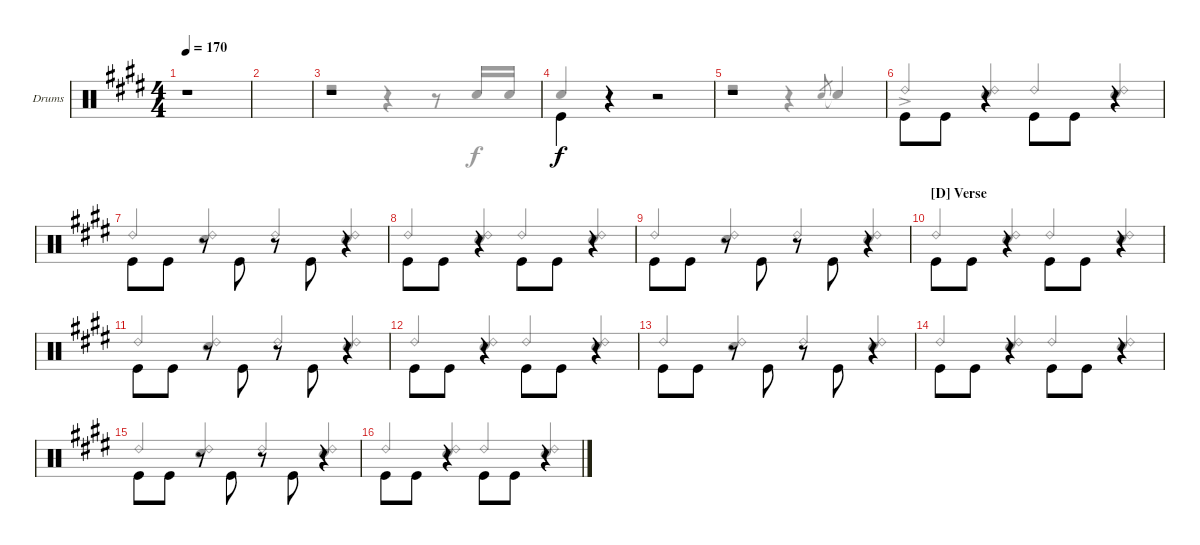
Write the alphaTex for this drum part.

\bracketExtendMode groupsimilarinstruments
\firstSystemTrackNameOrientation horizontal
\otherSystemsTrackNameOrientation horizontal
\track ("Drums" "Drums") {instrument percussion}
\staff {score}
\articulation defaults
\voice
\ts (4 4)
\tempo 170
\clef neutral
\scale
1.06557
\ks e
r.1{dy f} |
\scale
0.934426 |
\scale
1.06557 r.1 |
\scale
0.934426 "Kick (hit)".4{beam invert} r.4 r.2 |
\scale
1.06557 r.1 |
\scale
0.934426 "Kick (hit)".8{beam invert} "Kick (hit)".8 r.4 "Kick (hit)".8{beam invert} "Kick (hit)".8 r.4 |
\scale
1.06557 "Kick (hit)".8{beam invert} "Kick (hit)".8 r.8{beam invert} "Kick (hit)".8{beam invert} r.8{beam invert} "Kick (hit)".8{beam invert} r.4{beam invert} |
\scale
0.934426 "Kick (hit)".8{beam invert} "Kick (hit)".8 r.4 "Kick (hit)".8{beam invert} "Kick (hit)".8 r.4 |
\scale
1.06557 "Kick (hit)".8{beam invert} "Kick (hit)".8 r.8{beam invert} "Kick (hit)".8{beam invert} r.8{beam invert} "Kick (hit)".8{beam invert} r.4{beam invert} |
\section ("D" "Verse")
\scale
0.934426 "Kick (hit)".8{beam invert} "Kick (hit)".8 r.4 "Kick (hit)".8{beam invert} "Kick (hit)".8 r.4 |
\scale
1.06557 "Kick (hit)".8{beam invert} "Kick (hit)".8 r.8{beam invert} "Kick (hit)".8{beam invert} r.8{beam invert} "Kick (hit)".8{beam invert} r.4{beam invert} |
\scale
0.934426 "Kick (hit)".8{beam invert} "Kick (hit)".8 r.4 "Kick (hit)".8{beam invert} "Kick (hit)".8 r.4 |
\scale
1.06557 "Kick (hit)".8{beam invert} "Kick (hit)".8 r.8{beam invert} "Kick (hit)".8{beam invert} r.8{beam invert} "Kick (hit)".8{beam invert} r.4{beam invert} |
\scale
0.934426 "Kick (hit)".8{beam invert} "Kick (hit)".8 r.4 "Kick (hit)".8{beam invert} "Kick (hit)".8 r.4 |
\scale
1.06557 "Kick (hit)".8{beam invert} "Kick (hit)".8 r.8{beam invert} "Kick (hit)".8{beam invert} r.8{beam invert} "Kick (hit)".8{beam invert} r.4{beam invert} |
\scale
0.934426 "Kick (hit)".8{beam invert} "Kick (hit)".8 r.4 "Kick (hit)".8{beam invert} "Kick (hit)".8 r.4
\voice
\clef neutral
\ottava regular
\simile none
\scale
1.06557
\ks e
|
\scale
0.934426 |
\scale
1.06557 r.2 r.4 r.8 "Snare (hit) 2".16{beam invert} "Snare (hit) 2".16 |
\scale
0.934426 "Snare (hit) 2".4{beam invert} r.4 r.2 |
\scale
1.06557 r.2 r.4 "Snare (hit) 2".8{gr beam invert} "Snare (hit) 2"{t}.4{beam invert} |
\scale
0.934426 "Ride (bell) 2"{ac}.4{beam invert} ("Ride (bell) 2" "Snare (hit) 2").4{beam invert} "Ride (bell) 2".4{beam invert} ("Ride (bell) 2" "Snare (hit) 2").4{beam invert} |
\scale
1.06557 "Ride (bell) 2".4{beam invert} ("Ride (bell) 2" "Snare (hit) 2").4{beam invert} "Ride (bell) 2".4{beam invert} ("Ride (bell) 2" "Snare (hit) 2").4{beam invert} |
\scale
0.934426 "Ride (bell) 2".4{beam invert} ("Ride (bell) 2" "Snare (hit) 2").4{beam invert} "Ride (bell) 2".4{beam invert} ("Ride (bell) 2" "Snare (hit) 2").4{beam invert} |
\scale
1.06557 "Ride (bell) 2".4{beam invert} ("Ride (bell) 2" "Snare (hit) 2").4{beam invert} "Ride (bell) 2".4{beam invert} ("Ride (bell) 2" "Snare (hit) 2").4{beam invert} |
\scale
0.934426 "Ride (bell) 2".4{beam invert} ("Ride (bell) 2" "Snare (hit) 2").4{beam invert} "Ride (bell) 2".4{beam invert} ("Ride (bell) 2" "Snare (hit) 2").4{beam invert} |
\scale
1.06557 "Ride (bell) 2".4{beam invert} ("Ride (bell) 2" "Snare (hit) 2").4{beam invert} "Ride (bell) 2".4{beam invert} ("Ride (bell) 2" "Snare (hit) 2").4{beam invert} |
\scale
0.934426 "Ride (bell) 2".4{beam invert} ("Ride (bell) 2" "Snare (hit) 2").4{beam invert} "Ride (bell) 2".4{beam invert} ("Ride (bell) 2" "Snare (hit) 2").4{beam invert} |
\scale
1.06557 "Ride (bell) 2".4{beam invert} ("Ride (bell) 2" "Snare (hit) 2").4{beam invert} "Ride (bell) 2".4{beam invert} ("Ride (bell) 2" "Snare (hit) 2").4{beam invert} |
\scale
0.934426 "Ride (bell) 2".4{beam invert} ("Ride (bell) 2" "Snare (hit) 2").4{beam invert} "Ride (bell) 2".4{beam invert} ("Ride (bell) 2" "Snare (hit) 2").4{beam invert} |
\scale
1.06557 "Ride (bell) 2".4{beam invert} ("Ride (bell) 2" "Snare (hit) 2").4{beam invert} "Ride (bell) 2".4{beam invert} ("Ride (bell) 2" "Snare (hit) 2").4{beam invert} |
\scale
0.934426 "Ride (bell) 2".4{beam invert} ("Ride (bell) 2" "Snare (hit) 2").4{beam invert} "Ride (bell) 2".4{beam invert} ("Ride (bell) 2" "Snare (hit) 2").4{beam invert}
